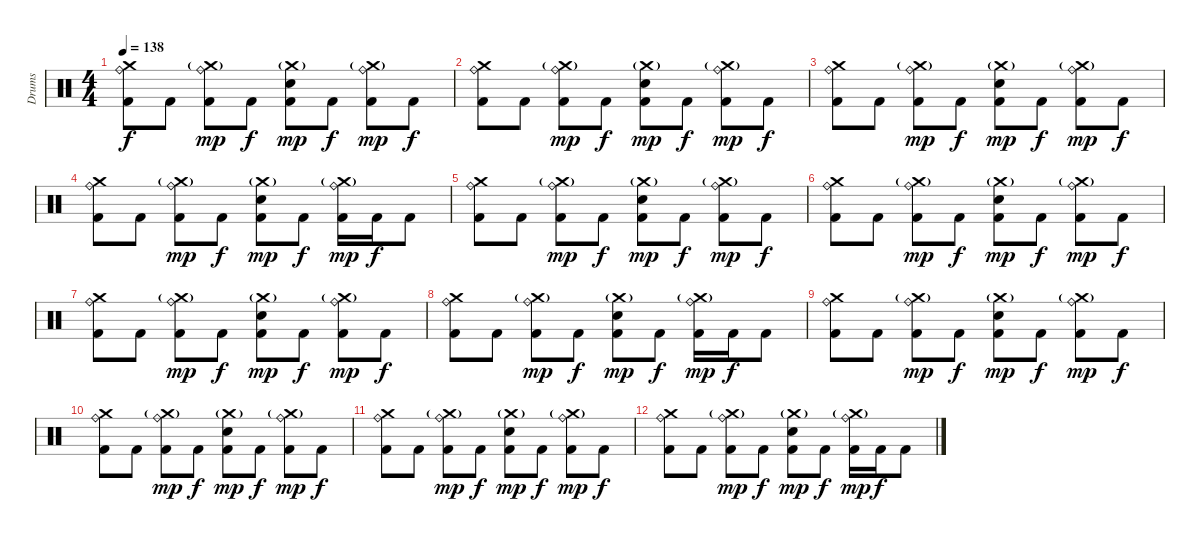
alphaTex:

\track ("Drums" "Drums") {instrument percussion}
\staff {score}
\articulation defaults
\ts (4 4)
\tempo 138
\clef neutral
\ks c
("Crash medium (hit)" "Ride (bell)" "Kick (hit) 2").8{dy f volume 11} "Kick (hit) 2".8 ("Crash medium (hit)"{g} "Ride (bell)" "Kick (hit) 2").8{dy mp} "Kick (hit) 2".8{dy f} ("Crash medium (hit)"{g} "Electric Snare (hit)" "Kick (hit) 2").8{dy mp} "Kick (hit) 2".8{dy f} ("Crash medium (hit)"{g} "Ride (bell)" "Kick (hit) 2").8{dy mp} "Kick (hit) 2".8{dy f} |
("Crash medium (hit)" "Ride (bell)" "Kick (hit) 2").8{volume 10} "Kick (hit) 2".8 ("Crash medium (hit)"{g} "Ride (bell)" "Kick (hit) 2").8{dy mp} "Kick (hit) 2".8{dy f} ("Crash medium (hit)"{g} "Electric Snare (hit)" "Kick (hit) 2").8{dy mp} "Kick (hit) 2".8{dy f} ("Crash medium (hit)"{g} "Ride (bell)" "Kick (hit) 2").8{dy mp} "Kick (hit) 2".8{dy f} |
("Crash medium (hit)" "Ride (bell)" "Kick (hit) 2").8{volume 9} "Kick (hit) 2".8 ("Crash medium (hit)"{g} "Ride (bell)" "Kick (hit) 2").8{dy mp} "Kick (hit) 2".8{dy f} ("Crash medium (hit)"{g} "Electric Snare (hit)" "Kick (hit) 2").8{dy mp} "Kick (hit) 2".8{dy f} ("Crash medium (hit)"{g} "Ride (bell)" "Kick (hit) 2").8{dy mp} "Kick (hit) 2".8{dy f} |
("Crash medium (hit)" "Ride (bell)" "Kick (hit) 2").8{volume 8} "Kick (hit) 2".8 ("Crash medium (hit)"{g} "Ride (bell)" "Kick (hit) 2").8{dy mp} "Kick (hit) 2".8{dy f} ("Crash medium (hit)"{g} "Electric Snare (hit)" "Kick (hit) 2").8{dy mp} "Kick (hit) 2".8{dy f} ("Crash medium (hit)"{g} "Ride (bell)" "Kick (hit) 2").16{dy mp} "Kick (hit) 2".16{dy f} "Kick (hit) 2".8 |
("Crash medium (hit)" "Ride (bell)" "Kick (hit) 2").8{volume 7} "Kick (hit) 2".8 ("Crash medium (hit)"{g} "Ride (bell)" "Kick (hit) 2").8{dy mp} "Kick (hit) 2".8{dy f} ("Crash medium (hit)"{g} "Electric Snare (hit)" "Kick (hit) 2").8{dy mp} "Kick (hit) 2".8{dy f} ("Crash medium (hit)"{g} "Ride (bell)" "Kick (hit) 2").8{dy mp} "Kick (hit) 2".8{dy f} |
("Crash medium (hit)" "Ride (bell)" "Kick (hit) 2").8{volume 6} "Kick (hit) 2".8 ("Crash medium (hit)"{g} "Ride (bell)" "Kick (hit) 2").8{dy mp} "Kick (hit) 2".8{dy f} ("Crash medium (hit)"{g} "Electric Snare (hit)" "Kick (hit) 2").8{dy mp} "Kick (hit) 2".8{dy f} ("Crash medium (hit)"{g} "Ride (bell)" "Kick (hit) 2").8{dy mp} "Kick (hit) 2".8{dy f} |
("Crash medium (hit)" "Ride (bell)" "Kick (hit) 2").8{volume 5} "Kick (hit) 2".8 ("Crash medium (hit)"{g} "Ride (bell)" "Kick (hit) 2").8{dy mp} "Kick (hit) 2".8{dy f} ("Crash medium (hit)"{g} "Electric Snare (hit)" "Kick (hit) 2").8{dy mp} "Kick (hit) 2".8{dy f} ("Crash medium (hit)"{g} "Ride (bell)" "Kick (hit) 2").8{dy mp} "Kick (hit) 2".8{dy f} |
("Crash medium (hit)" "Ride (bell)" "Kick (hit) 2").8{volume 4} "Kick (hit) 2".8 ("Crash medium (hit)"{g} "Ride (bell)" "Kick (hit) 2").8{dy mp} "Kick (hit) 2".8{dy f} ("Crash medium (hit)"{g} "Electric Snare (hit)" "Kick (hit) 2").8{dy mp} "Kick (hit) 2".8{dy f} ("Crash medium (hit)"{g} "Ride (bell)" "Kick (hit) 2").16{dy mp} "Kick (hit) 2".16{dy f} "Kick (hit) 2".8 |
("Crash medium (hit)" "Ride (bell)" "Kick (hit) 2").8{volume 3} "Kick (hit) 2".8 ("Crash medium (hit)"{g} "Ride (bell)" "Kick (hit) 2").8{dy mp} "Kick (hit) 2".8{dy f} ("Crash medium (hit)"{g} "Electric Snare (hit)" "Kick (hit) 2").8{dy mp} "Kick (hit) 2".8{dy f} ("Crash medium (hit)"{g} "Ride (bell)" "Kick (hit) 2").8{dy mp} "Kick (hit) 2".8{dy f} |
("Crash medium (hit)" "Ride (bell)" "Kick (hit) 2").8{volume 2} "Kick (hit) 2".8 ("Crash medium (hit)"{g} "Ride (bell)" "Kick (hit) 2").8{dy mp} "Kick (hit) 2".8{dy f} ("Crash medium (hit)"{g} "Electric Snare (hit)" "Kick (hit) 2").8{dy mp} "Kick (hit) 2".8{dy f} ("Crash medium (hit)"{g} "Ride (bell)" "Kick (hit) 2").8{dy mp} "Kick (hit) 2".8{dy f} |
("Crash medium (hit)" "Ride (bell)" "Kick (hit) 2").8{volume 1} "Kick (hit) 2".8 ("Crash medium (hit)"{g} "Ride (bell)" "Kick (hit) 2").8{dy mp} "Kick (hit) 2".8{dy f} ("Crash medium (hit)"{g} "Electric Snare (hit)" "Kick (hit) 2").8{dy mp} "Kick (hit) 2".8{dy f} ("Crash medium (hit)"{g} "Ride (bell)" "Kick (hit) 2").8{dy mp} "Kick (hit) 2".8{dy f} |
("Crash medium (hit)" "Ride (bell)" "Kick (hit) 2").8{volume 0} "Kick (hit) 2".8 ("Crash medium (hit)"{g} "Ride (bell)" "Kick (hit) 2").8{dy mp} "Kick (hit) 2".8{dy f} ("Crash medium (hit)"{g} "Electric Snare (hit)" "Kick (hit) 2").8{dy mp} "Kick (hit) 2".8{dy f} ("Crash medium (hit)"{g} "Ride (bell)" "Kick (hit) 2").16{dy mp} "Kick (hit) 2".16{dy f} "Kick (hit) 2".8
